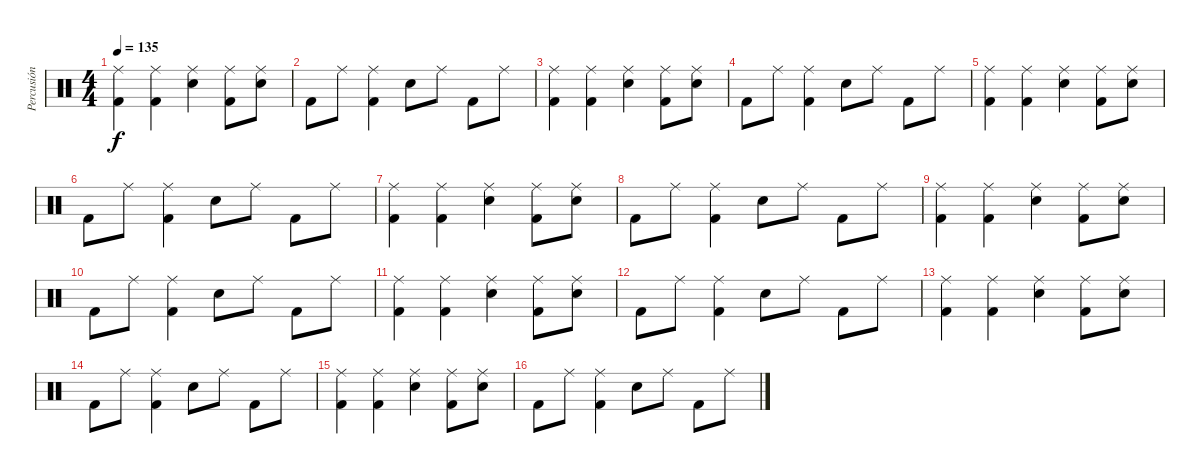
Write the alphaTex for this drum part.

\track ("Percusión" "Percusión") {instrument percussion}
\staff {score}
\articulation defaults
\ts (4 4)
\tempo 135
\clef neutral
\ks c
("Kick (hit) 2" "Ride (middle)").4{dy f} ("Kick (hit) 2" "Ride (middle)").4 ("Ride (middle)" "Snare (hit) 2").4 ("Kick (hit) 2" "Ride (middle)").8 ("Snare (hit) 2" "Ride (middle)").8 |
"Kick (hit) 2".8 "Ride (middle)".8 ("Kick (hit) 2" "Ride (middle)").4 "Snare (hit) 2".8 "Ride (middle)".8 "Kick (hit) 2".8 "Ride (middle)".8 |
("Kick (hit) 2" "Ride (middle)").4 ("Kick (hit) 2" "Ride (middle)").4 ("Ride (middle)" "Snare (hit) 2").4 ("Kick (hit) 2" "Ride (middle)").8 ("Snare (hit) 2" "Ride (middle)").8 |
"Kick (hit) 2".8 "Ride (middle)".8 ("Kick (hit) 2" "Ride (middle)").4 "Snare (hit) 2".8 "Ride (middle)".8 "Kick (hit) 2".8 "Ride (middle)".8 |
("Kick (hit) 2" "Ride (middle)").4 ("Kick (hit) 2" "Ride (middle)").4 ("Ride (middle)" "Snare (hit) 2").4 ("Kick (hit) 2" "Ride (middle)").8 ("Snare (hit) 2" "Ride (middle)").8 |
"Kick (hit) 2".8 "Ride (middle)".8 ("Kick (hit) 2" "Ride (middle)").4 "Snare (hit) 2".8 "Ride (middle)".8 "Kick (hit) 2".8 "Ride (middle)".8 |
("Kick (hit) 2" "Ride (middle)").4 ("Kick (hit) 2" "Ride (middle)").4 ("Ride (middle)" "Snare (hit) 2").4 ("Kick (hit) 2" "Ride (middle)").8 ("Snare (hit) 2" "Ride (middle)").8 |
"Kick (hit) 2".8 "Ride (middle)".8 ("Kick (hit) 2" "Ride (middle)").4 "Snare (hit) 2".8 "Ride (middle)".8 "Kick (hit) 2".8 "Ride (middle)".8 |
("Kick (hit) 2" "Ride (middle)").4 ("Kick (hit) 2" "Ride (middle)").4 ("Ride (middle)" "Snare (hit) 2").4 ("Kick (hit) 2" "Ride (middle)").8 ("Snare (hit) 2" "Ride (middle)").8 |
"Kick (hit) 2".8 "Ride (middle)".8 ("Kick (hit) 2" "Ride (middle)").4 "Snare (hit) 2".8 "Ride (middle)".8 "Kick (hit) 2".8 "Ride (middle)".8 |
("Kick (hit) 2" "Ride (middle)").4 ("Kick (hit) 2" "Ride (middle)").4 ("Ride (middle)" "Snare (hit) 2").4 ("Kick (hit) 2" "Ride (middle)").8 ("Snare (hit) 2" "Ride (middle)").8 |
"Kick (hit) 2".8 "Ride (middle)".8 ("Kick (hit) 2" "Ride (middle)").4 "Snare (hit) 2".8 "Ride (middle)".8 "Kick (hit) 2".8 "Ride (middle)".8 |
("Kick (hit) 2" "Ride (middle)").4 ("Kick (hit) 2" "Ride (middle)").4 ("Ride (middle)" "Snare (hit) 2").4 ("Kick (hit) 2" "Ride (middle)").8 ("Snare (hit) 2" "Ride (middle)").8 |
"Kick (hit) 2".8 "Ride (middle)".8 ("Kick (hit) 2" "Ride (middle)").4 "Snare (hit) 2".8 "Ride (middle)".8 "Kick (hit) 2".8 "Ride (middle)".8 |
("Kick (hit) 2" "Ride (middle)").4 ("Kick (hit) 2" "Ride (middle)").4 ("Ride (middle)" "Snare (hit) 2").4 ("Kick (hit) 2" "Ride (middle)").8 ("Snare (hit) 2" "Ride (middle)").8 |
"Kick (hit) 2".8 "Ride (middle)".8 ("Kick (hit) 2" "Ride (middle)").4 "Snare (hit) 2".8 "Ride (middle)".8 "Kick (hit) 2".8 "Ride (middle)".8
